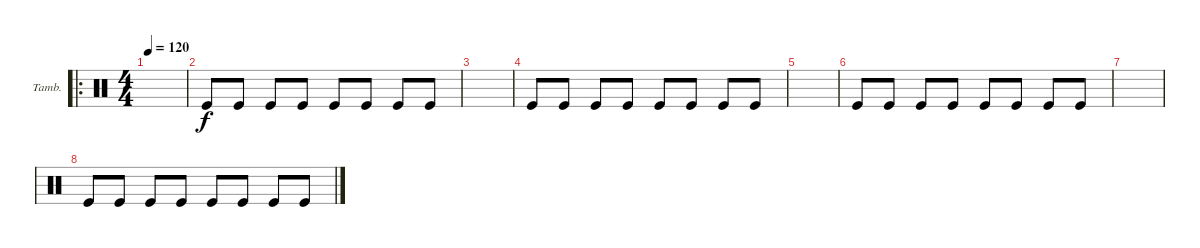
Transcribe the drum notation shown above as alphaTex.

\bracketExtendMode groupsimilarinstruments
\firstSystemTrackNameOrientation horizontal
\otherSystemsTrackNameOrientation horizontal
\track ("Tambourine" "Tamb.") {instrument percussion}
\staff {score}
\articulation defaults
\ro
\ts (4 4)
\tempo 120
\clef neutral
\scale
0.5
\ks c
|
\scale
0.25 "Kick (hit)".8 "Kick (hit)".8 "Kick (hit)".8 "Kick (hit)".8 "Kick (hit)".8 "Kick (hit)".8 "Kick (hit)".8 "Kick (hit)".8 |
\scale
0.25 |
\scale
0.333333 "Kick (hit)".8 "Kick (hit)".8 "Kick (hit)".8 "Kick (hit)".8 "Kick (hit)".8 "Kick (hit)".8 "Kick (hit)".8 "Kick (hit)".8 |
\scale
0.333333 |
\scale
0.333333 "Kick (hit)".8 "Kick (hit)".8 "Kick (hit)".8 "Kick (hit)".8 "Kick (hit)".8 "Kick (hit)".8 "Kick (hit)".8 "Kick (hit)".8 |
\scale
0.333333 |
\scale
0.333333 "Kick (hit)".8 "Kick (hit)".8 "Kick (hit)".8 "Kick (hit)".8 "Kick (hit)".8 "Kick (hit)".8 "Kick (hit)".8 "Kick (hit)".8 |
\scale
0.333333 |
\scale
0.333333 |
\scale
0.333333 |
\scale
0.333333 |
\scale
0.333333 |
\scale
0.333333 |
\scale
0.333333 |
\scale
0.311475
